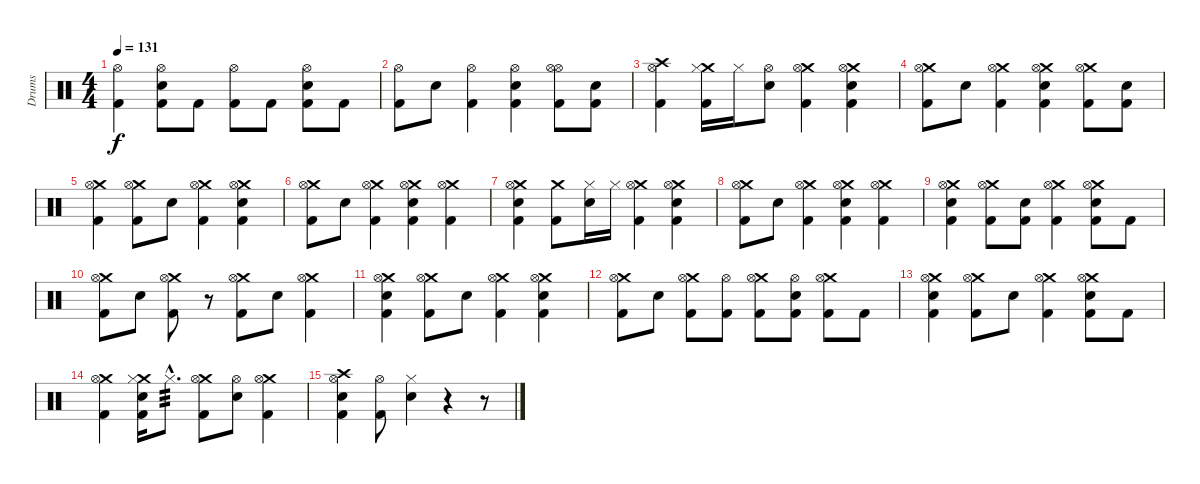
\track ("Drums" "Drums") {instrument percussion}
\staff {score}
\articulation defaults
\ts (4 4)
\tempo 131
\clef neutral
\ks c
("Hi-Hat (open)" "Kick (hit) 2").4{dy f} ("Electric Snare (hit)" "Hi-Hat (open)" "Kick (hit) 2").8 "Kick (hit) 2".8 ("Hi-Hat (open)" "Kick (hit) 2").8 "Kick (hit) 2".8 ("Electric Snare (hit)" "Hi-Hat (open)" "Kick (hit) 2").8 "Kick (hit) 2".8 |
("Hi-Hat (open)" "Kick (hit) 2").8 "Electric Snare (hit)".8 ("Hi-Hat (open)" "Kick (hit) 2").4 ("Electric Snare (hit)" "Hi-Hat (open)" "Kick (hit) 2").4 ("Hi-Hat (open)" "Hi-Hat (open)" "Kick (hit) 2").8 ("Electric Snare (hit)" "Kick (hit) 2").8 |
("Crash high (hit)" "Hi-Hat (open)" "Kick (hit) 2").4 ("Crash medium (hit)" "Hi-Hat (closed)" "Kick (hit) 2").16 "Hi-Hat (closed)".16 ("Electric Snare (hit)" "Hi-Hat (open)").8 ("Crash medium (hit)" "Hi-Hat (open)" "Kick (hit) 2").4 ("Crash medium (hit)" "Electric Snare (hit)" "Hi-Hat (open)" "Kick (hit) 2").4 |
("Crash medium (hit)" "Hi-Hat (open)" "Kick (hit) 2").8 "Electric Snare (hit)".8 ("Crash medium (hit)" "Hi-Hat (open)" "Kick (hit) 2").4 ("Crash medium (hit)" "Electric Snare (hit)" "Hi-Hat (open)" "Kick (hit) 2").4 ("Crash medium (hit)" "Hi-Hat (open)" "Kick (hit) 2").8 ("Electric Snare (hit)" "Kick (hit) 2").8 |
("Crash medium (hit)" "Hi-Hat (open)" "Kick (hit) 2").4 ("Crash medium (hit)" "Hi-Hat (open)" "Kick (hit) 2").8 "Electric Snare (hit)".8 ("Crash medium (hit)" "Hi-Hat (open)" "Kick (hit) 2").4 ("Crash medium (hit)" "Electric Snare (hit)" "Hi-Hat (open)" "Kick (hit) 2").4 |
("Crash medium (hit)" "Hi-Hat (open)" "Kick (hit) 2").8 "Electric Snare (hit)".8 ("Crash medium (hit)" "Hi-Hat (open)" "Kick (hit) 2").4 ("Crash medium (hit)" "Electric Snare (hit)" "Hi-Hat (open)" "Kick (hit) 2").4 ("Crash medium (hit)" "Hi-Hat (open)" "Kick (hit) 2").4 |
("Crash medium (hit)" "Electric Snare (hit)" "Hi-Hat (open)" "Kick (hit) 2").4 ("Crash medium (hit)" "Kick (hit) 2").8 ("Electric Snare (hit)" "Hi-Hat (closed)").16 "Hi-Hat (closed)".16 ("Crash medium (hit)" "Hi-Hat (open)" "Kick (hit) 2").4 ("Crash medium (hit)" "Electric Snare (hit)" "Hi-Hat (open)" "Kick (hit) 2").4 |
("Crash medium (hit)" "Hi-Hat (open)" "Kick (hit) 2").8 "Electric Snare (hit)".8 ("Crash medium (hit)" "Hi-Hat (open)" "Kick (hit) 2").4 ("Crash medium (hit)" "Electric Snare (hit)" "Hi-Hat (open)" "Kick (hit) 2").4 ("Crash medium (hit)" "Hi-Hat (open)" "Kick (hit) 2").4 |
("Crash medium (hit)" "Electric Snare (hit)" "Hi-Hat (open)" "Kick (hit) 2").4 ("Crash medium (hit)" "Hi-Hat (open)" "Kick (hit) 2").8 ("Electric Snare (hit)" "Kick (hit) 2").8 ("Crash medium (hit)" "Hi-Hat (open)" "Kick (hit) 2").4 ("Crash medium (hit)" "Electric Snare (hit)" "Hi-Hat (open)" "Kick (hit) 2").8 "Kick (hit) 2".8 |
("Crash medium (hit)" "Hi-Hat (open)" "Kick (hit) 2").8 "Electric Snare (hit)".8 ("Crash medium (hit)" "Hi-Hat (open)" "Kick (hit) 2").8 r.8 ("Crash medium (hit)" "Hi-Hat (open)" "Kick (hit) 2").8 "Electric Snare (hit)".8 ("Crash medium (hit)" "Hi-Hat (open)" "Kick (hit) 2").4 |
("Crash medium (hit)" "Electric Snare (hit)" "Hi-Hat (open)" "Kick (hit) 2").4 ("Crash medium (hit)" "Hi-Hat (open)" "Kick (hit) 2").8 "Electric Snare (hit)".8 ("Crash medium (hit)" "Hi-Hat (open)" "Kick (hit) 2").4 ("Crash medium (hit)" "Electric Snare (hit)" "Hi-Hat (open)" "Kick (hit) 2").4 |
("Crash medium (hit)" "Hi-Hat (open)" "Kick (hit) 2").8 "Electric Snare (hit)".8 ("Crash medium (hit)" "Hi-Hat (open)" "Kick (hit) 2").8 ("Hi-Hat (open)" "Kick (hit) 2").8 ("Crash medium (hit)" "Hi-Hat (open)" "Kick (hit) 2").8 ("Electric Snare (hit)" "Hi-Hat (open)" "Kick (hit) 2").8 ("Crash medium (hit)" "Hi-Hat (open)" "Kick (hit) 2").8 "Kick (hit) 2".8 |
("Crash medium (hit)" "Electric Snare (hit)" "Hi-Hat (open)" "Kick (hit) 2").4 ("Crash medium (hit)" "Hi-Hat (open)" "Kick (hit) 2").8 "Electric Snare (hit)".8 ("Crash medium (hit)" "Hi-Hat (open)" "Kick (hit) 2").4 ("Crash medium (hit)" "Electric Snare (hit)" "Hi-Hat (open)" "Kick (hit) 2").8 "Kick (hit) 2".8 |
("Crash medium (hit)" "Hi-Hat (open)" "Kick (hit) 2").4 ("Crash medium (hit)" "Electric Snare (hit)" "Hi-Hat (closed)" "Kick (hit) 2").16 "Hi-Hat (closed)"{hac}.8{d tp 3} ("Crash medium (hit)" "Hi-Hat (open)" "Kick (hit) 2").8 ("Electric Snare (hit)" "Hi-Hat (open)").8 ("Crash medium (hit)" "Hi-Hat (open)" "Kick (hit) 2").4 |
("Crash high (hit)" "Electric Snare (hit)" "Hi-Hat (open)" "Kick (hit) 2").4 ("Hi-Hat (open)" "Kick (hit) 2").8 ("Electric Snare (hit)" "Hi-Hat (closed)").4 r.4 r.8
